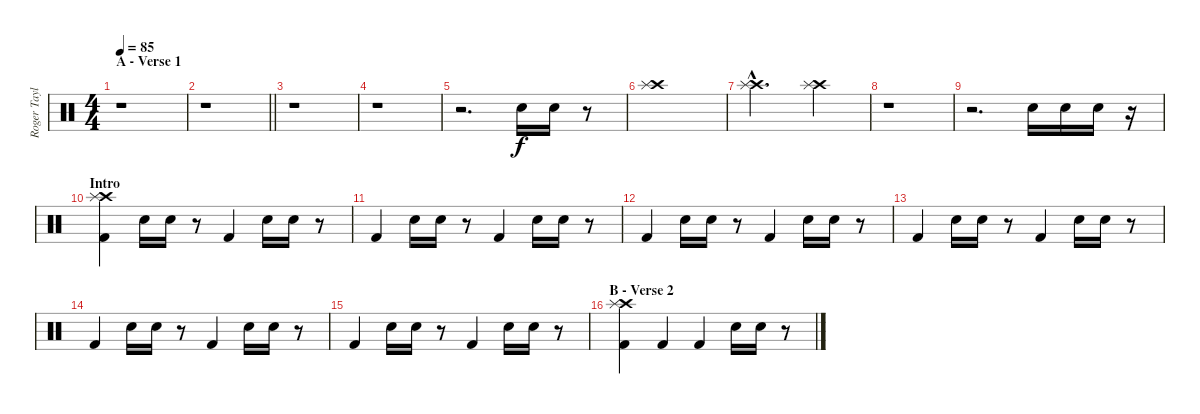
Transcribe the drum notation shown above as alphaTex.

\track ("Roger Taylor - Drums" "Roger Tayl") {instrument percussion}
\staff {score}
\articulation defaults
\ts (4 4)
\section ("" "A - Verse 1")
\tempo 85
\clef neutral
\ks c
r.1{dy f} |
\barLineRight lightlight
r.1 |
r.1 |
r.1 |
r.2{d} "Electric Snare (hit)".16 "Electric Snare (hit)".16 r.8 |
("Crash high (hit)" "Splash (hit)").1 |
("Crash high (hit)"{hac} "Splash (hit)"{hac}).2{d} ("Crash high (hit)"{tr (49 64)} "Splash (hit)"{tr (55 64)}).4 |
r.1 |
r.2{d} "Electric Snare (hit)".16 "Electric Snare (hit)".16 "Electric Snare (hit)".16 r.16 |
\section ("" "Intro")
("Crash high (hit)" "Splash (hit)" "Kick (hit) 2").4 "Electric Snare (hit)".16 "Electric Snare (hit)".16 r.8 "Kick (hit) 2".4 "Electric Snare (hit)".16 "Electric Snare (hit)".16 r.8 |
"Kick (hit) 2".4 "Electric Snare (hit)".16 "Electric Snare (hit)".16 r.8 "Kick (hit) 2".4 "Electric Snare (hit)".16 "Electric Snare (hit)".16 r.8 |
"Kick (hit) 2".4 "Electric Snare (hit)".16 "Electric Snare (hit)".16 r.8 "Kick (hit) 2".4 "Electric Snare (hit)".16 "Electric Snare (hit)".16 r.8 |
"Kick (hit) 2".4 "Electric Snare (hit)".16 "Electric Snare (hit)".16 r.8 "Kick (hit) 2".4 "Electric Snare (hit)".16 "Electric Snare (hit)".16 r.8 |
"Kick (hit) 2".4 "Electric Snare (hit)".16 "Electric Snare (hit)".16 r.8 "Kick (hit) 2".4 "Electric Snare (hit)".16 "Electric Snare (hit)".16 r.8 |
"Kick (hit) 2".4 "Electric Snare (hit)".16 "Electric Snare (hit)".16 r.8 "Kick (hit) 2".4 "Electric Snare (hit)".16 "Electric Snare (hit)".16 r.8 |
\section ("" "B - Verse 2")
("Crash high (hit)" "Splash (hit)" "Kick (hit) 2").4 "Kick (hit) 2".4 "Kick (hit) 2".4 "Electric Snare (hit)".16 "Electric Snare (hit)".16 r.8
